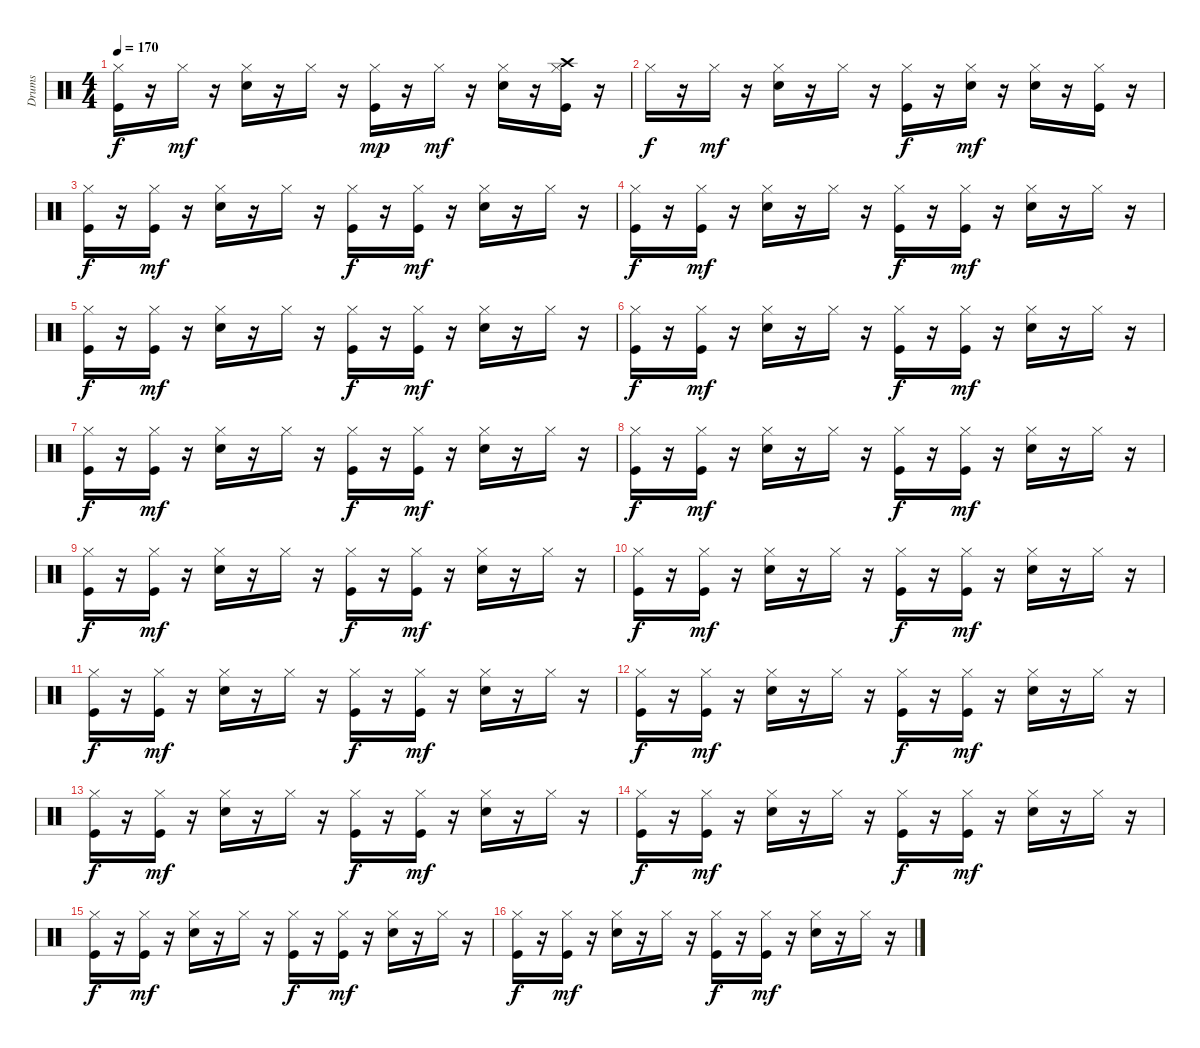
\track ("Drums" "Drums") {instrument percussion}
\staff {score}
\articulation defaults
\ts (4 4)
\tempo 170
\clef neutral
\ks c
("Hi-Hat (closed)" "Kick (hit)").16{dy f} r.16 "Hi-Hat (closed)".16{dy mf} r.16 ("Hi-Hat (closed)" "Electric Snare (hit)").16 r.16 "Hi-Hat (closed)".16 r.16 ("Hi-Hat (closed)" "Kick (hit)").16{dy mp} r.16 "Hi-Hat (closed)".16{dy mf} r.16 ("Hi-Hat (closed)" "Electric Snare (hit)").16 r.16 ("Hi-Hat (closed)" "Crash high (hit)" "Kick (hit)").16 r.16 |
"Hi-Hat (closed)".16{dy f} r.16 "Hi-Hat (closed)".16{dy mf} r.16 ("Hi-Hat (closed)" "Electric Snare (hit)").16 r.16 "Hi-Hat (closed)".16 r.16 ("Hi-Hat (closed)" "Kick (hit)").16{dy f} r.16 ("Hi-Hat (closed)" "Electric Snare (hit)").16{dy mf} r.16 ("Hi-Hat (closed)" "Electric Snare (hit)").16 r.16 ("Hi-Hat (closed)" "Kick (hit)").16 r.16 |
("Hi-Hat (closed)" "Kick (hit)").16{dy f} r.16 ("Hi-Hat (closed)" "Kick (hit)").16{dy mf} r.16 ("Hi-Hat (closed)" "Electric Snare (hit)").16 r.16 "Hi-Hat (closed)".16 r.16 ("Hi-Hat (closed)" "Kick (hit)").16{dy f} r.16 ("Hi-Hat (closed)" "Kick (hit)").16{dy mf} r.16 ("Hi-Hat (closed)" "Electric Snare (hit)").16 r.16 "Hi-Hat (closed)".16 r.16 |
("Hi-Hat (closed)" "Kick (hit)").16{dy f} r.16 ("Hi-Hat (closed)" "Kick (hit)").16{dy mf} r.16 ("Hi-Hat (closed)" "Electric Snare (hit)").16 r.16 "Hi-Hat (closed)".16 r.16 ("Hi-Hat (closed)" "Kick (hit)").16{dy f} r.16 ("Hi-Hat (closed)" "Kick (hit)").16{dy mf} r.16 ("Hi-Hat (closed)" "Electric Snare (hit)").16 r.16 "Hi-Hat (closed)".16 r.16 |
("Hi-Hat (closed)" "Kick (hit)").16{dy f} r.16 ("Hi-Hat (closed)" "Kick (hit)").16{dy mf} r.16 ("Hi-Hat (closed)" "Electric Snare (hit)").16 r.16 "Hi-Hat (closed)".16 r.16 ("Hi-Hat (closed)" "Kick (hit)").16{dy f} r.16 ("Hi-Hat (closed)" "Kick (hit)").16{dy mf} r.16 ("Hi-Hat (closed)" "Electric Snare (hit)").16 r.16 "Hi-Hat (closed)".16 r.16 |
("Hi-Hat (closed)" "Kick (hit)").16{dy f} r.16 ("Hi-Hat (closed)" "Kick (hit)").16{dy mf} r.16 ("Hi-Hat (closed)" "Electric Snare (hit)").16 r.16 "Hi-Hat (closed)".16 r.16 ("Hi-Hat (closed)" "Kick (hit)").16{dy f} r.16 ("Hi-Hat (closed)" "Kick (hit)").16{dy mf} r.16 ("Hi-Hat (closed)" "Electric Snare (hit)").16 r.16 "Hi-Hat (closed)".16 r.16 |
("Hi-Hat (closed)" "Kick (hit)").16{dy f} r.16 ("Hi-Hat (closed)" "Kick (hit)").16{dy mf} r.16 ("Hi-Hat (closed)" "Electric Snare (hit)").16 r.16 "Hi-Hat (closed)".16 r.16 ("Hi-Hat (closed)" "Kick (hit)").16{dy f} r.16 ("Hi-Hat (closed)" "Kick (hit)").16{dy mf} r.16 ("Hi-Hat (closed)" "Electric Snare (hit)").16 r.16 "Hi-Hat (closed)".16 r.16 |
("Hi-Hat (closed)" "Kick (hit)").16{dy f} r.16 ("Hi-Hat (closed)" "Kick (hit)").16{dy mf} r.16 ("Hi-Hat (closed)" "Electric Snare (hit)").16 r.16 "Hi-Hat (closed)".16 r.16 ("Hi-Hat (closed)" "Kick (hit)").16{dy f} r.16 ("Hi-Hat (closed)" "Kick (hit)").16{dy mf} r.16 ("Hi-Hat (closed)" "Electric Snare (hit)").16 r.16 "Hi-Hat (closed)".16 r.16 |
("Hi-Hat (closed)" "Kick (hit)").16{dy f} r.16 ("Hi-Hat (closed)" "Kick (hit)").16{dy mf} r.16 ("Hi-Hat (closed)" "Electric Snare (hit)").16 r.16 "Hi-Hat (closed)".16 r.16 ("Hi-Hat (closed)" "Kick (hit)").16{dy f} r.16 ("Hi-Hat (closed)" "Kick (hit)").16{dy mf} r.16 ("Hi-Hat (closed)" "Electric Snare (hit)").16 r.16 "Hi-Hat (closed)".16 r.16 |
("Hi-Hat (closed)" "Kick (hit)").16{dy f} r.16 ("Hi-Hat (closed)" "Kick (hit)").16{dy mf} r.16 ("Hi-Hat (closed)" "Electric Snare (hit)").16 r.16 "Hi-Hat (closed)".16 r.16 ("Hi-Hat (closed)" "Kick (hit)").16{dy f} r.16 ("Hi-Hat (closed)" "Kick (hit)").16{dy mf} r.16 ("Hi-Hat (closed)" "Electric Snare (hit)").16 r.16 "Hi-Hat (closed)".16 r.16 |
("Hi-Hat (closed)" "Kick (hit)").16{dy f} r.16 ("Hi-Hat (closed)" "Kick (hit)").16{dy mf} r.16 ("Hi-Hat (closed)" "Electric Snare (hit)").16 r.16 "Hi-Hat (closed)".16 r.16 ("Hi-Hat (closed)" "Kick (hit)").16{dy f} r.16 ("Hi-Hat (closed)" "Kick (hit)").16{dy mf} r.16 ("Hi-Hat (closed)" "Electric Snare (hit)").16 r.16 "Hi-Hat (closed)".16 r.16 |
("Hi-Hat (closed)" "Kick (hit)").16{dy f} r.16 ("Hi-Hat (closed)" "Kick (hit)").16{dy mf} r.16 ("Hi-Hat (closed)" "Electric Snare (hit)").16 r.16 "Hi-Hat (closed)".16 r.16 ("Hi-Hat (closed)" "Kick (hit)").16{dy f} r.16 ("Hi-Hat (closed)" "Kick (hit)").16{dy mf} r.16 ("Hi-Hat (closed)" "Electric Snare (hit)").16 r.16 "Hi-Hat (closed)".16 r.16 |
("Hi-Hat (closed)" "Kick (hit)").16{dy f} r.16 ("Hi-Hat (closed)" "Kick (hit)").16{dy mf} r.16 ("Hi-Hat (closed)" "Electric Snare (hit)").16 r.16 "Hi-Hat (closed)".16 r.16 ("Hi-Hat (closed)" "Kick (hit)").16{dy f} r.16 ("Hi-Hat (closed)" "Kick (hit)").16{dy mf} r.16 ("Hi-Hat (closed)" "Electric Snare (hit)").16 r.16 "Hi-Hat (closed)".16 r.16 |
("Hi-Hat (closed)" "Kick (hit)").16{dy f} r.16 ("Hi-Hat (closed)" "Kick (hit)").16{dy mf} r.16 ("Hi-Hat (closed)" "Electric Snare (hit)").16 r.16 "Hi-Hat (closed)".16 r.16 ("Hi-Hat (closed)" "Kick (hit)").16{dy f} r.16 ("Hi-Hat (closed)" "Kick (hit)").16{dy mf} r.16 ("Hi-Hat (closed)" "Electric Snare (hit)").16 r.16 "Hi-Hat (closed)".16 r.16 |
("Hi-Hat (closed)" "Kick (hit)").16{dy f} r.16 ("Hi-Hat (closed)" "Kick (hit)").16{dy mf} r.16 ("Hi-Hat (closed)" "Electric Snare (hit)").16 r.16 "Hi-Hat (closed)".16 r.16 ("Hi-Hat (closed)" "Kick (hit)").16{dy f} r.16 ("Hi-Hat (closed)" "Kick (hit)").16{dy mf} r.16 ("Hi-Hat (closed)" "Electric Snare (hit)").16 r.16 "Hi-Hat (closed)".16 r.16 |
("Hi-Hat (closed)" "Kick (hit)").16{dy f} r.16 ("Hi-Hat (closed)" "Kick (hit)").16{dy mf} r.16 ("Hi-Hat (closed)" "Electric Snare (hit)").16 r.16 "Hi-Hat (closed)".16 r.16 ("Hi-Hat (closed)" "Kick (hit)").16{dy f} r.16 ("Hi-Hat (closed)" "Kick (hit)").16{dy mf} r.16 ("Hi-Hat (closed)" "Electric Snare (hit)").16 r.16 "Hi-Hat (closed)".16 r.16
